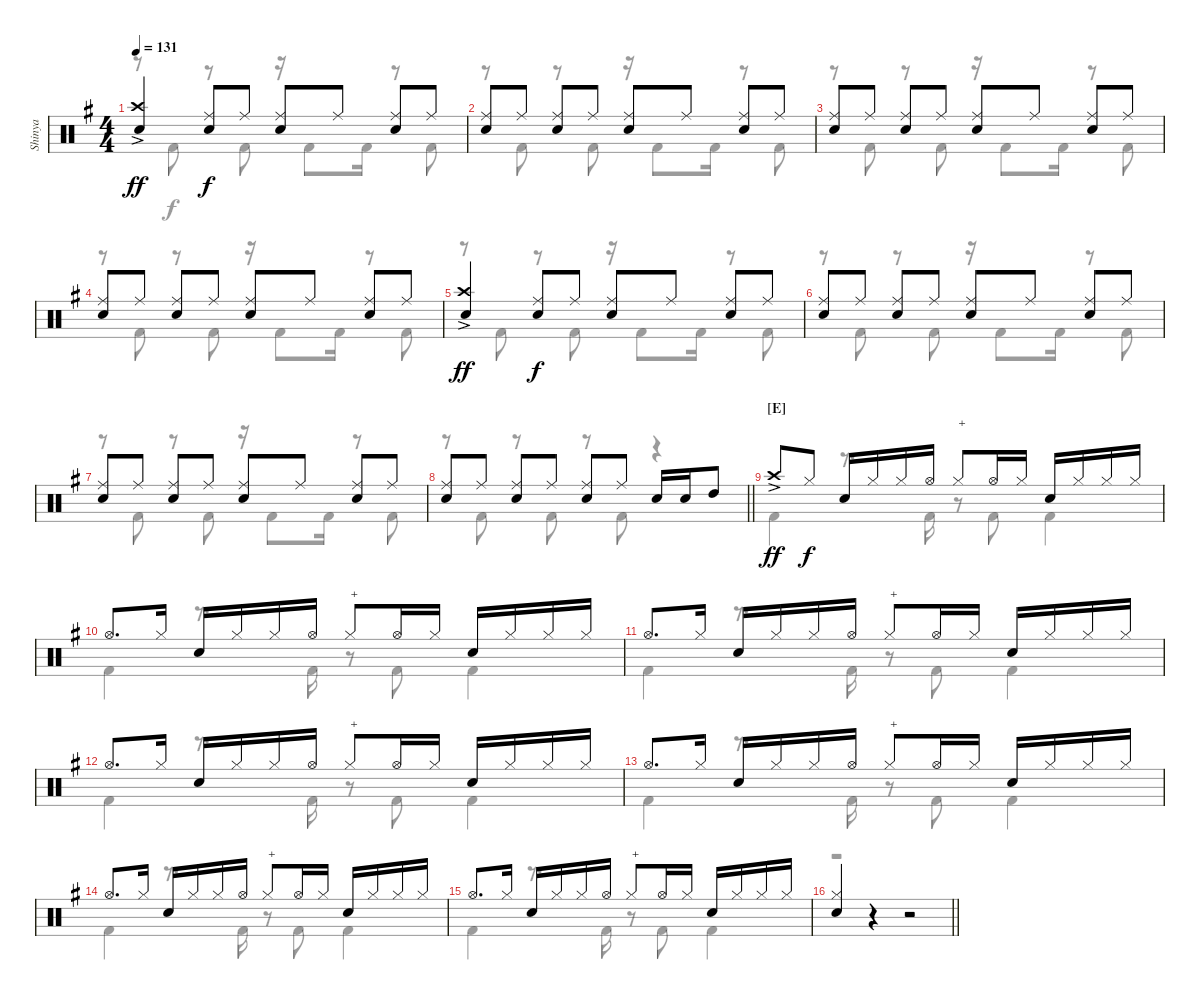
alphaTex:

\track ("Shinya" "Shinya") {instrument percussion}
\staff {score}
\articulation defaults
\voice
\ts (4 4)
\tempo 131
\clef neutral
\ks eminor
("Crash high (hit)"{ac} "Snare (hit) 2").4{dy ff} ("Ride (middle)" "Snare (hit) 2").8{dy f} "Ride (middle)".8 ("Ride (middle)" "Snare (hit) 2").8 "Ride (middle)".8 ("Ride (middle)" "Snare (hit) 2").8 "Ride (middle)".8 |
("Ride (middle)" "Snare (hit) 2").8 "Ride (middle)".8 ("Ride (middle)" "Snare (hit) 2").8 "Ride (middle)".8 ("Ride (middle)" "Snare (hit) 2").8 "Ride (middle)".8 ("Ride (middle)" "Snare (hit) 2").8 "Ride (middle)".8 |
("Ride (middle)" "Snare (hit) 2").8 "Ride (middle)".8 ("Ride (middle)" "Snare (hit) 2").8 "Ride (middle)".8 ("Ride (middle)" "Snare (hit) 2").8 "Ride (middle)".8 ("Ride (middle)" "Snare (hit) 2").8 "Ride (middle)".8 |
("Ride (middle)" "Snare (hit) 2").8 "Ride (middle)".8 ("Ride (middle)" "Snare (hit) 2").8 "Ride (middle)".8 ("Ride (middle)" "Snare (hit) 2").8 "Ride (middle)".8 ("Ride (middle)" "Snare (hit) 2").8 "Ride (middle)".8 |
("Crash high (hit)"{ac} "Snare (hit) 2").4{dy ff} ("Ride (middle)" "Snare (hit) 2").8{dy f} "Ride (middle)".8 ("Ride (middle)" "Snare (hit) 2").8 "Ride (middle)".8 ("Ride (middle)" "Snare (hit) 2").8 "Ride (middle)".8 |
("Ride (middle)" "Snare (hit) 2").8 "Ride (middle)".8 ("Ride (middle)" "Snare (hit) 2").8 "Ride (middle)".8 ("Ride (middle)" "Snare (hit) 2").8 "Ride (middle)".8 ("Ride (middle)" "Snare (hit) 2").8 "Ride (middle)".8 |
("Ride (middle)" "Snare (hit) 2").8 "Ride (middle)".8 ("Ride (middle)" "Snare (hit) 2").8 "Ride (middle)".8 ("Ride (middle)" "Snare (hit) 2").8 "Ride (middle)".8 ("Ride (middle)" "Snare (hit) 2").8 "Ride (middle)".8 |
\barLineRight lightlight
("Ride (middle)" "Snare (hit) 2").8 "Ride (middle)".8 ("Ride (middle)" "Snare (hit) 2").8 "Ride (middle)".8 ("Ride (middle)" "Snare (hit) 2").8 "Ride (middle)".8 "Snare (hit) 2".16 "Snare (hit) 2".16 "High Tom (hit)".8 |
\section ("" "[E]")
"Crash high (hit)"{ac}.8{dy ff} "Hi-Hat (closed)".8{dy f} "Snare (hit) 2".16 "Hi-Hat (closed)".16 "Hi-Hat (closed)".16 "Hi-Hat (open)".16 "Hi-Hat (closed)".8{txt "+"} "Hi-Hat (open)".16 "Hi-Hat (closed)".16 "Snare (hit) 2".16 "Hi-Hat (closed)".16 "Hi-Hat (closed)".16 "Hi-Hat (closed)".16 |
"Hi-Hat (open)".8{d} "Hi-Hat (closed)".16 "Snare (hit) 2".16 "Hi-Hat (closed)".16 "Hi-Hat (closed)".16 "Hi-Hat (open)".16 "Hi-Hat (closed)".8{txt "+"} "Hi-Hat (open)".16 "Hi-Hat (closed)".16 "Snare (hit) 2".16 "Hi-Hat (closed)".16 "Hi-Hat (closed)".16 "Hi-Hat (closed)".16 |
"Hi-Hat (open)".8{d} "Hi-Hat (closed)".16 "Snare (hit) 2".16 "Hi-Hat (closed)".16 "Hi-Hat (closed)".16 "Hi-Hat (open)".16 "Hi-Hat (closed)".8{txt "+"} "Hi-Hat (open)".16 "Hi-Hat (closed)".16 "Snare (hit) 2".16 "Hi-Hat (closed)".16 "Hi-Hat (closed)".16 "Hi-Hat (closed)".16 |
"Hi-Hat (open)".8{d} "Hi-Hat (closed)".16 "Snare (hit) 2".16 "Hi-Hat (closed)".16 "Hi-Hat (closed)".16 "Hi-Hat (open)".16 "Hi-Hat (closed)".8{txt "+"} "Hi-Hat (open)".16 "Hi-Hat (closed)".16 "Snare (hit) 2".16 "Hi-Hat (closed)".16 "Hi-Hat (closed)".16 "Hi-Hat (closed)".16 |
"Hi-Hat (open)".8{d} "Hi-Hat (closed)".16 "Snare (hit) 2".16 "Hi-Hat (closed)".16 "Hi-Hat (closed)".16 "Hi-Hat (open)".16 "Hi-Hat (closed)".8{txt "+"} "Hi-Hat (open)".16 "Hi-Hat (closed)".16 "Snare (hit) 2".16 "Hi-Hat (closed)".16 "Hi-Hat (closed)".16 "Hi-Hat (closed)".16 |
"Hi-Hat (open)".8{d} "Hi-Hat (closed)".16 "Snare (hit) 2".16 "Hi-Hat (closed)".16 "Hi-Hat (closed)".16 "Hi-Hat (open)".16 "Hi-Hat (closed)".8{txt "+"} "Hi-Hat (open)".16 "Hi-Hat (closed)".16 "Snare (hit) 2".16 "Hi-Hat (closed)".16 "Hi-Hat (closed)".16 "Hi-Hat (closed)".16 |
"Hi-Hat (open)".8{d} "Hi-Hat (closed)".16 "Snare (hit) 2".16 "Hi-Hat (closed)".16 "Hi-Hat (closed)".16 "Hi-Hat (open)".16 "Hi-Hat (closed)".8{txt "+"} "Hi-Hat (open)".16 "Hi-Hat (closed)".16 "Snare (hit) 2".16 "Hi-Hat (closed)".16 "Hi-Hat (closed)".16 "Hi-Hat (closed)".16 |
\barLineRight lightlight
("Hi-Hat (closed)" "Snare (hit) 2").4 r.4 r.2
\voice
\clef neutral
\ottava regular
\simile none
\ks eminor
r.8{dy f} "Kick (hit) 2".8 r.8 "Kick (hit) 2".8 r.16 "Kick (hit) 2".8 "Kick (hit) 2".16 r.8 "Kick (hit) 2".8 |
r.8 "Kick (hit) 2".8 r.8 "Kick (hit) 2".8 r.16 "Kick (hit) 2".8 "Kick (hit) 2".16 r.8 "Kick (hit) 2".8 |
r.8 "Kick (hit) 2".8 r.8 "Kick (hit) 2".8 r.16 "Kick (hit) 2".8 "Kick (hit) 2".16 r.8 "Kick (hit) 2".8 |
r.8 "Kick (hit) 2".8 r.8 "Kick (hit) 2".8 r.16 "Kick (hit) 2".8 "Kick (hit) 2".16 r.8 "Kick (hit) 2".8 |
r.8 "Kick (hit) 2".8 r.8 "Kick (hit) 2".8 r.16 "Kick (hit) 2".8 "Kick (hit) 2".16 r.8 "Kick (hit) 2".8 |
r.8 "Kick (hit) 2".8 r.8 "Kick (hit) 2".8 r.16 "Kick (hit) 2".8 "Kick (hit) 2".16 r.8 "Kick (hit) 2".8 |
r.8 "Kick (hit) 2".8 r.8 "Kick (hit) 2".8 r.16 "Kick (hit) 2".8 "Kick (hit) 2".16 r.8 "Kick (hit) 2".8 |
\barLineRight lightlight
r.8 "Kick (hit) 2".8 r.8 "Kick (hit) 2".8 r.8 "Kick (hit) 2".8 r.4 |
"Kick (hit) 2".4 r.8{d} "Kick (hit) 2".16 r.8 "Kick (hit) 2".8 "Kick (hit) 2".4 |
"Kick (hit) 2".4 r.8{d} "Kick (hit) 2".16 r.8 "Kick (hit) 2".8 "Kick (hit) 2".4 |
"Kick (hit) 2".4 r.8{d} "Kick (hit) 2".16 r.8 "Kick (hit) 2".8 "Kick (hit) 2".4 |
"Kick (hit) 2".4 r.8{d} "Kick (hit) 2".16 r.8 "Kick (hit) 2".8 "Kick (hit) 2".4 |
"Kick (hit) 2".4 r.8{d} "Kick (hit) 2".16 r.8 "Kick (hit) 2".8 "Kick (hit) 2".4 |
"Kick (hit) 2".4 r.8{d} "Kick (hit) 2".16 r.8 "Kick (hit) 2".8 "Kick (hit) 2".4 |
"Kick (hit) 2".4 r.8{d} "Kick (hit) 2".16 r.8 "Kick (hit) 2".8 "Kick (hit) 2".4 |
\barLineRight lightlight
r.1
